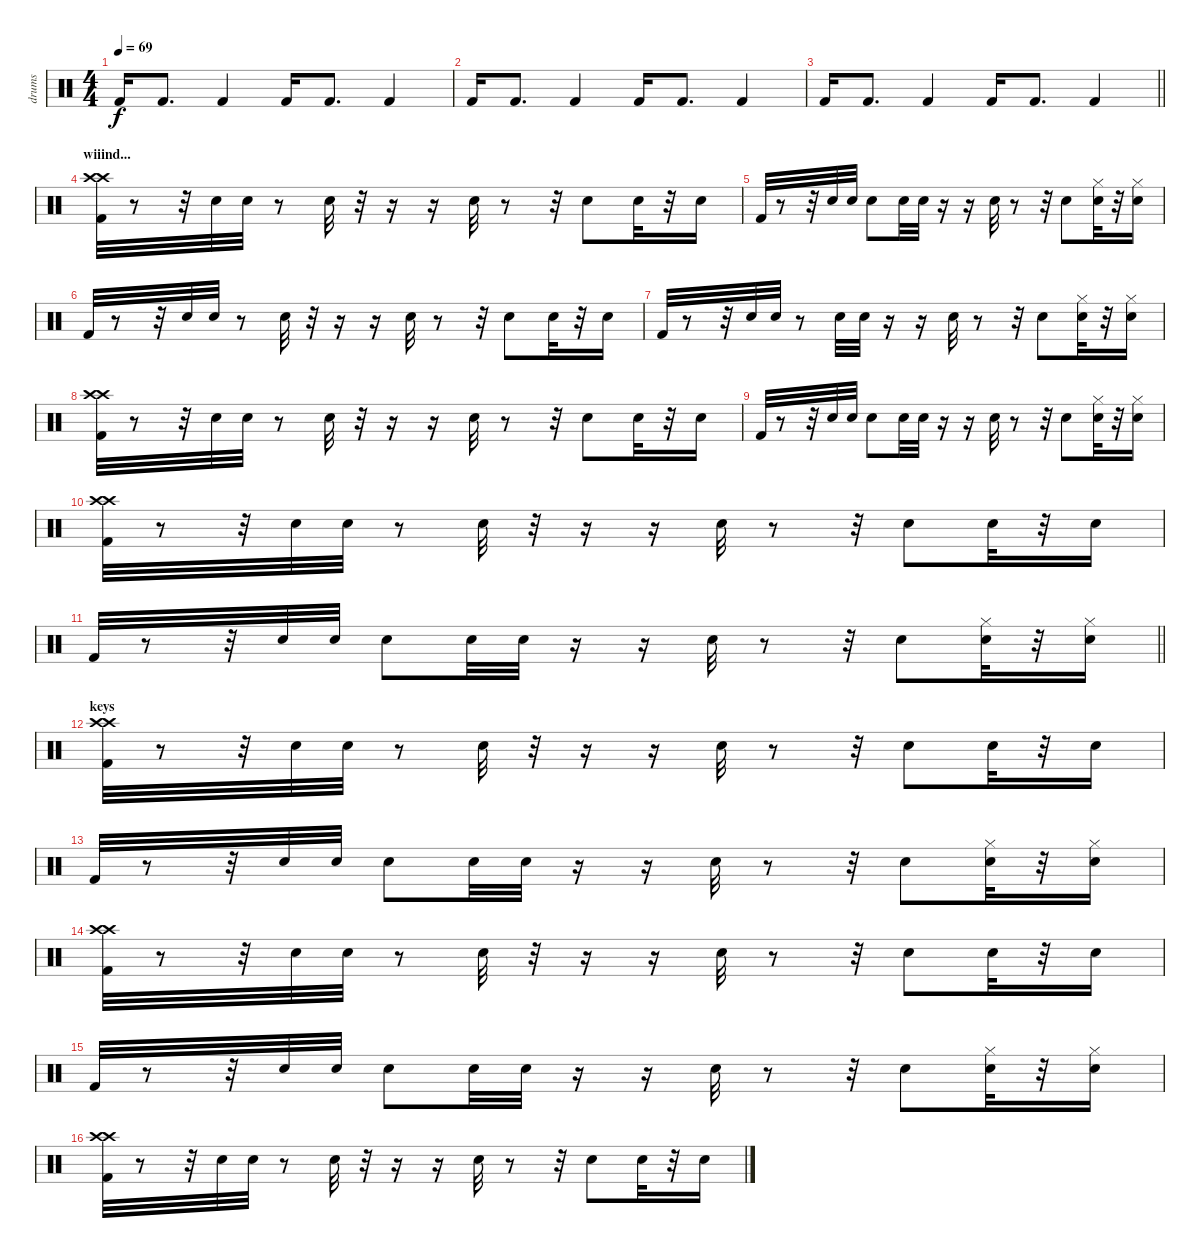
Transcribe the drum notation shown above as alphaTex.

\track ("drums" "drums") {instrument percussion}
\staff {score}
\articulation defaults
\ts (4 4)
\tempo 69
\clef neutral
\ks c "Kick (hit) 2".16{dy f} "Kick (hit) 2".8{d} "Kick (hit) 2".4 "Kick (hit) 2".16 "Kick (hit) 2".8{d} "Kick (hit) 2".4
|
"Kick (hit) 2".16 "Kick (hit) 2".8{d} "Kick (hit) 2".4 "Kick (hit) 2".16 "Kick (hit) 2".8{d} "Kick (hit) 2".4 |
\barLineRight lightlight "Kick (hit) 2".16 "Kick (hit) 2".8{d} "Kick (hit) 2".4 "Kick (hit) 2".16 "Kick (hit) 2".8{d} "Kick (hit) 2".4
|
\section ("" "wiiind...")
("Kick (hit) 2" "Crash high (hit)" "Crash high (hit)").32 r.8 r.32 "Snare (hit) 2".32 "Snare (hit) 2".32 r.8 "Snare (hit) 2".32 r.32 r.16 r.16 "Snare (hit) 2".32 r.8 r.32 "Snare (hit) 2".8 "Snare (hit) 2".32 r.32 "Snare (hit) 2".16 |
"Kick (hit) 2".32 r.8 r.32 "Snare (hit) 2".32 "Snare (hit) 2".32 "Snare (hit) 2".8 "Snare (hit) 2".32 "Snare (hit) 2".32 r.16 r.16 "Snare (hit) 2".32 r.8 r.32 "Snare (hit) 2".8 ("Snare (hit) 2" "Hi-Hat (closed)").32 r.32 ("Snare (hit) 2" "Hi-Hat (closed)").16 |
"Kick (hit) 2".32 r.8 r.32 "Snare (hit) 2".32 "Snare (hit) 2".32 r.8 "Snare (hit) 2".32 r.32 r.16 r.16 "Snare (hit) 2".32 r.8 r.32 "Snare (hit) 2".8 "Snare (hit) 2".32 r.32 "Snare (hit) 2".16 |
"Kick (hit) 2".32 r.8 r.32 "Snare (hit) 2".32 "Snare (hit) 2".32 r.8 "Snare (hit) 2".32 "Snare (hit) 2".32 r.16 r.16 "Snare (hit) 2".32 r.8 r.32 "Snare (hit) 2".8 ("Snare (hit) 2" "Hi-Hat (closed)").32 r.32 ("Snare (hit) 2" "Hi-Hat (closed)").16 |
("Kick (hit) 2" "Crash high (hit)" "Crash high (hit)").32 r.8 r.32 "Snare (hit) 2".32 "Snare (hit) 2".32 r.8 "Snare (hit) 2".32 r.32 r.16 r.16 "Snare (hit) 2".32 r.8 r.32 "Snare (hit) 2".8 "Snare (hit) 2".32 r.32 "Snare (hit) 2".16 |
"Kick (hit) 2".32 r.8 r.32 "Snare (hit) 2".32 "Snare (hit) 2".32 "Snare (hit) 2".8 "Snare (hit) 2".32 "Snare (hit) 2".32 r.16 r.16 "Snare (hit) 2".32 r.8 r.32 "Snare (hit) 2".8 ("Snare (hit) 2" "Hi-Hat (closed)").32 r.32 ("Snare (hit) 2" "Hi-Hat (closed)").16 |
("Kick (hit) 2" "Crash high (hit)" "Crash high (hit)").32 r.8 r.32 "Snare (hit) 2".32 "Snare (hit) 2".32 r.8 "Snare (hit) 2".32 r.32 r.16 r.16 "Snare (hit) 2".32 r.8 r.32 "Snare (hit) 2".8 "Snare (hit) 2".32 r.32 "Snare (hit) 2".16 |
\barLineRight lightlight "Kick (hit) 2".32
r.8 r.32 "Snare (hit) 2".32 "Snare (hit) 2".32 "Snare (hit) 2".8 "Snare (hit) 2".32 "Snare (hit) 2".32 r.16 r.16 "Snare (hit) 2".32 r.8 r.32 "Snare (hit) 2".8 ("Snare (hit) 2" "Hi-Hat (closed)").32 r.32 ("Snare (hit) 2" "Hi-Hat (closed)").16 |
\section ("" "keys")
("Kick (hit) 2" "Crash high (hit)" "Crash high (hit)").32 r.8 r.32 "Snare (hit) 2".32 "Snare (hit) 2".32 r.8 "Snare (hit) 2".32 r.32 r.16 r.16 "Snare (hit) 2".32 r.8 r.32 "Snare (hit) 2".8 "Snare (hit) 2".32 r.32 "Snare (hit) 2".16 |
"Kick (hit) 2".32 r.8 r.32 "Snare (hit) 2".32 "Snare (hit) 2".32 "Snare (hit) 2".8 "Snare (hit) 2".32 "Snare (hit) 2".32 r.16 r.16 "Snare (hit) 2".32 r.8 r.32 "Snare (hit) 2".8 ("Snare (hit) 2" "Hi-Hat (closed)").32 r.32 ("Snare (hit) 2" "Hi-Hat (closed)").16 |
("Kick (hit) 2" "Crash high (hit)" "Crash high (hit)").32 r.8 r.32 "Snare (hit) 2".32 "Snare (hit) 2".32 r.8 "Snare (hit) 2".32 r.32 r.16 r.16 "Snare (hit) 2".32 r.8 r.32 "Snare (hit) 2".8 "Snare (hit) 2".32 r.32 "Snare (hit) 2".16 |
"Kick (hit) 2".32 r.8 r.32 "Snare (hit) 2".32 "Snare (hit) 2".32 "Snare (hit) 2".8 "Snare (hit) 2".32 "Snare (hit) 2".32 r.16 r.16 "Snare (hit) 2".32 r.8 r.32 "Snare (hit) 2".8 ("Snare (hit) 2" "Hi-Hat (closed)").32 r.32 ("Snare (hit) 2" "Hi-Hat (closed)").16 |
("Kick (hit) 2" "Crash high (hit)" "Crash high (hit)").32 r.8 r.32 "Snare (hit) 2".32 "Snare (hit) 2".32 r.8 "Snare (hit) 2".32 r.32 r.16 r.16 "Snare (hit) 2".32 r.8 r.32 "Snare (hit) 2".8 "Snare (hit) 2".32 r.32 "Snare (hit) 2".16
